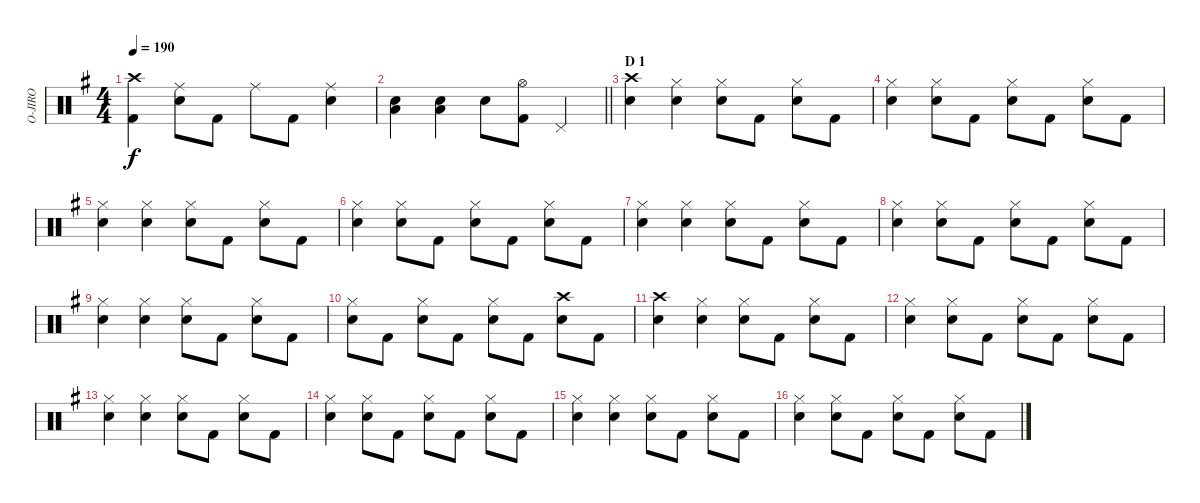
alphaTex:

\track ("O-JIRO" "O-JIRO") {instrument percussion}
\staff {score}
\articulation defaults
\ts (4 4)
\tempo 190
\clef neutral
\ks g
("Crash high (hit)" "Kick (hit) 2").4{dy f} ("Ride (middle)" "Snare (hit) 2").8 "Kick (hit) 2".8 "Ride (middle)".8 "Kick (hit) 2".8 ("Ride (middle)" "Snare (hit) 2").4 |
\barLineRight lightlight
("Snare (hit) 2" "Low Tom (hit)").4 ("Snare (hit) 2" "Low Tom (hit)").4 "Snare (hit) 2".8 ("Hi-Hat (open)" "Kick (hit) 2").8 "Pedal Hi-Hat (hit)".4 |
\section ("" "D 1")
("Crash high (hit)" "Snare (hit) 2").4 ("Hi-Hat (closed)" "Snare (hit) 2").4 ("Hi-Hat (closed)" "Snare (hit) 2").8 "Kick (hit) 2".8 ("Hi-Hat (closed)" "Snare (hit) 2").8 "Kick (hit) 2".8 |
("Hi-Hat (closed)" "Snare (hit) 2").4 ("Hi-Hat (closed)" "Snare (hit) 2").8 "Kick (hit) 2".8 ("Hi-Hat (closed)" "Snare (hit) 2").8 "Kick (hit) 2".8 ("Hi-Hat (closed)" "Snare (hit) 2").8 "Kick (hit) 2".8 |
("Hi-Hat (closed)" "Snare (hit) 2").4 ("Hi-Hat (closed)" "Snare (hit) 2").4 ("Hi-Hat (closed)" "Snare (hit) 2").8 "Kick (hit) 2".8 ("Hi-Hat (closed)" "Snare (hit) 2").8 "Kick (hit) 2".8 |
("Hi-Hat (closed)" "Snare (hit) 2").4 ("Hi-Hat (closed)" "Snare (hit) 2").8 "Kick (hit) 2".8 ("Hi-Hat (closed)" "Snare (hit) 2").8 "Kick (hit) 2".8 ("Hi-Hat (closed)" "Snare (hit) 2").8 "Kick (hit) 2".8 |
("Hi-Hat (closed)" "Snare (hit) 2").4 ("Hi-Hat (closed)" "Snare (hit) 2").4 ("Hi-Hat (closed)" "Snare (hit) 2").8 "Kick (hit) 2".8 ("Hi-Hat (closed)" "Snare (hit) 2").8 "Kick (hit) 2".8 |
("Hi-Hat (closed)" "Snare (hit) 2").4 ("Hi-Hat (closed)" "Snare (hit) 2").8 "Kick (hit) 2".8 ("Hi-Hat (closed)" "Snare (hit) 2").8 "Kick (hit) 2".8 ("Hi-Hat (closed)" "Snare (hit) 2").8 "Kick (hit) 2".8 |
("Hi-Hat (closed)" "Snare (hit) 2").4 ("Hi-Hat (closed)" "Snare (hit) 2").4 ("Hi-Hat (closed)" "Snare (hit) 2").8 "Kick (hit) 2".8 ("Hi-Hat (closed)" "Snare (hit) 2").8 "Kick (hit) 2".8 |
("Hi-Hat (closed)" "Snare (hit) 2").8 "Kick (hit) 2".8 ("Hi-Hat (closed)" "Snare (hit) 2").8 "Kick (hit) 2".8 ("Hi-Hat (closed)" "Snare (hit) 2").8 "Kick (hit) 2".8 ("Crash high (hit)" "Snare (hit) 2").8 "Kick (hit) 2".8 |
("Crash high (hit)" "Snare (hit) 2").4 ("Hi-Hat (closed)" "Snare (hit) 2").4 ("Hi-Hat (closed)" "Snare (hit) 2").8 "Kick (hit) 2".8 ("Hi-Hat (closed)" "Snare (hit) 2").8 "Kick (hit) 2".8 |
("Hi-Hat (closed)" "Snare (hit) 2").4 ("Hi-Hat (closed)" "Snare (hit) 2").8 "Kick (hit) 2".8 ("Hi-Hat (closed)" "Snare (hit) 2").8 "Kick (hit) 2".8 ("Hi-Hat (closed)" "Snare (hit) 2").8 "Kick (hit) 2".8 |
("Hi-Hat (closed)" "Snare (hit) 2").4 ("Hi-Hat (closed)" "Snare (hit) 2").4 ("Hi-Hat (closed)" "Snare (hit) 2").8 "Kick (hit) 2".8 ("Hi-Hat (closed)" "Snare (hit) 2").8 "Kick (hit) 2".8 |
("Hi-Hat (closed)" "Snare (hit) 2").4 ("Hi-Hat (closed)" "Snare (hit) 2").8 "Kick (hit) 2".8 ("Hi-Hat (closed)" "Snare (hit) 2").8 "Kick (hit) 2".8 ("Hi-Hat (closed)" "Snare (hit) 2").8 "Kick (hit) 2".8 |
("Hi-Hat (closed)" "Snare (hit) 2").4 ("Hi-Hat (closed)" "Snare (hit) 2").4 ("Hi-Hat (closed)" "Snare (hit) 2").8 "Kick (hit) 2".8 ("Hi-Hat (closed)" "Snare (hit) 2").8 "Kick (hit) 2".8 |
("Hi-Hat (closed)" "Snare (hit) 2").4 ("Hi-Hat (closed)" "Snare (hit) 2").8 "Kick (hit) 2".8 ("Hi-Hat (closed)" "Snare (hit) 2").8 "Kick (hit) 2".8 ("Hi-Hat (closed)" "Snare (hit) 2").8 "Kick (hit) 2".8
